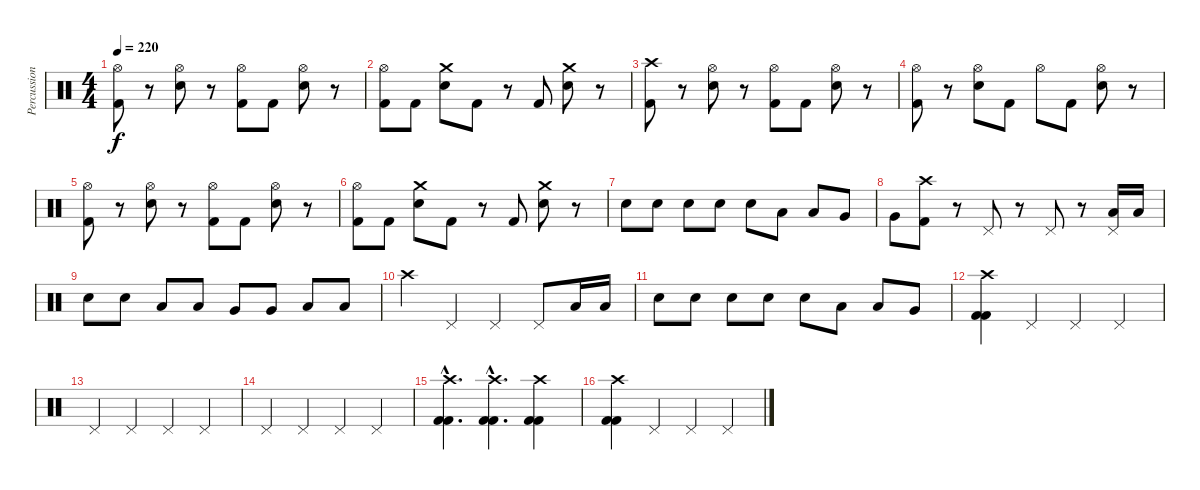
\track ("Percussion" "Percussion") {instrument percussion}
\staff {score}
\articulation defaults
\ts (4 4)
\tempo 220
\clef neutral
\ks c
("Hi-Hat (open)" "Kick (hit) 2").8{dy f} r.8 ("Hi-Hat (open)" "Snare (hit) 2").8 r.8 ("Hi-Hat (open)" "Kick (hit) 2").8 "Kick (hit) 2".8 ("Hi-Hat (open)" "Snare (hit) 2").8 r.8 |
("Hi-Hat (open)" "Kick (hit) 2").8 "Kick (hit) 2".8 ("Crash medium (hit)" "Snare (hit) 2").8 "Kick (hit) 2".8 r.8 "Kick (hit) 2".8 ("Crash medium (hit)" "Snare (hit) 2").8 r.8 |
("Crash high (hit)" "Kick (hit) 2").8 r.8 ("Hi-Hat (open)" "Snare (hit) 2").8 r.8 ("Hi-Hat (open)" "Kick (hit) 2").8 "Kick (hit) 2".8 ("Hi-Hat (open)" "Snare (hit) 2").8 r.8 |
("Hi-Hat (open)" "Kick (hit) 2").8 r.8 ("Hi-Hat (open)" "Snare (hit) 2").8 "Kick (hit) 2".8 "Hi-Hat (open)".8 "Kick (hit) 2".8 ("Hi-Hat (open)" "Snare (hit) 2").8 r.8 |
("Hi-Hat (open)" "Kick (hit) 2").8 r.8 ("Hi-Hat (open)" "Snare (hit) 2").8 r.8 ("Hi-Hat (open)" "Kick (hit) 2").8 "Kick (hit) 2".8 ("Hi-Hat (open)" "Snare (hit) 2").8 r.8 |
("Hi-Hat (open)" "Kick (hit) 2").8 "Kick (hit) 2".8 ("Crash medium (hit)" "Snare (hit) 2").8 "Kick (hit) 2".8 r.8 "Kick (hit) 2".8 ("Crash medium (hit)" "Snare (hit) 2").8 r.8 |
"Snare (hit) 2".8 "Snare (hit) 2".8 "Snare (hit) 2".8 "Snare (hit) 2".8 "Snare (hit) 2".8 "Low Tom (hit)".8 "Low Tom (hit)".8 "Very Low Tom (hit)".8 |
"Very Low Tom (hit)".8 ("Crash high (hit)" "Kick (hit) 2").8 r.8 "Pedal Hi-Hat (hit)".8 r.8 "Pedal Hi-Hat (hit)".8 r.8 ("Pedal Hi-Hat (hit)" "Low Tom (hit)").16 "Low Tom (hit)".16 |
"Snare (hit) 2".8 "Snare (hit) 2".8 "Low Tom (hit)".8 "Low Tom (hit)".8 "Very Low Tom (hit)".8 "Very Low Tom (hit)".8 "Low Floor Tom (hit)".8 "Low Floor Tom (hit)".8 |
"Crash high (hit)".4 "Pedal Hi-Hat (hit)".4 "Pedal Hi-Hat (hit)".4 "Pedal Hi-Hat (hit)".8 "Low Tom (hit)".16 "Low Tom (hit)".16 |
"Snare (hit) 2".8 "Snare (hit) 2".8 "Snare (hit) 2".8 "Snare (hit) 2".8 "Snare (hit) 2".8 "Low Tom (hit)".8 "Low Tom (hit)".8 "Very Low Tom (hit)".8 |
("Crash high (hit)" "Kick (hit) 2" "Kick (hit) 2").4 "Pedal Hi-Hat (hit)".4 "Pedal Hi-Hat (hit)".4 "Pedal Hi-Hat (hit)".4 |
"Pedal Hi-Hat (hit)".4 "Pedal Hi-Hat (hit)".4 "Pedal Hi-Hat (hit)".4 "Pedal Hi-Hat (hit)".4 |
"Pedal Hi-Hat (hit)".4 "Pedal Hi-Hat (hit)".4 "Pedal Hi-Hat (hit)".4 "Pedal Hi-Hat (hit)".4 |
("Crash high (hit)"{hac} "Kick (hit) 2"{hac} "Kick (hit) 2"{hac}).4{d} ("Crash high (hit)"{hac} "Kick (hit) 2"{hac} "Kick (hit) 2"{hac}).4{d} ("Crash high (hit)" "Kick (hit) 2" "Kick (hit) 2").4 |
("Crash high (hit)" "Kick (hit) 2" "Kick (hit) 2").4 "Pedal Hi-Hat (hit)".4 "Pedal Hi-Hat (hit)".4 "Pedal Hi-Hat (hit)".4
